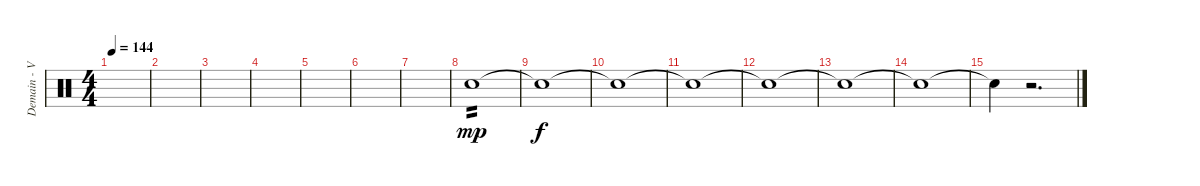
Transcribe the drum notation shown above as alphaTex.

\track ("Demain - Various Perc." "Demain - V") {instrument percussion}
\staff {score}
\articulation defaults
\ts (4 4)
\tempo 144
\clef neutral
\ks c
|
|
|
|
|
|
|
"Electric Snare (hit)".1{tp 2 dy mp volume 8} |
"Snare (hit)"{t}.1{dy f} |
"Snare (hit)"{t}.1 |
"Snare (hit)"{t}.1 |
"Snare (hit)"{t}.1{volume 15} |
"Snare (hit)"{t}.1 |
"Snare (hit)"{t}.1 |
"Snare (hit)"{t}.4 r.2{d}
